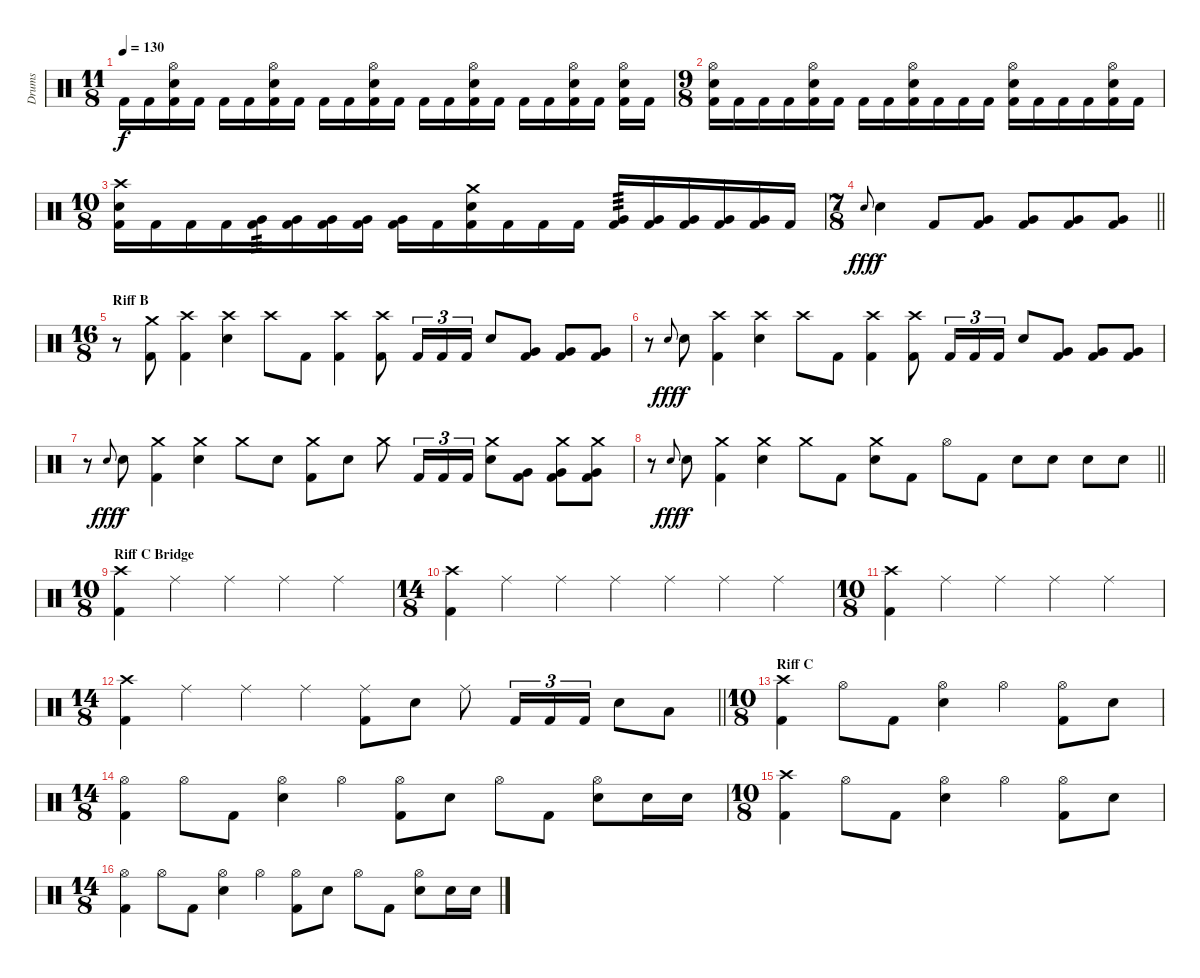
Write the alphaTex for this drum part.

\track ("Drums" "Drums") {instrument percussion}
\staff {score}
\articulation defaults
\ts (11 8)
\tempo 130
\clef neutral
\ks c "Kick (hit) 2".16{dy f} "Kick (hit) 2".16
("Kick (hit) 2" "Snare (hit) 2" "Hi-Hat (open)").16 "Kick (hit) 2".16 "Kick (hit) 2".16 "Kick (hit) 2".16 ("Kick (hit) 2" "Snare (hit) 2" "Hi-Hat (open)").16 "Kick (hit) 2".16 "Kick (hit) 2".16 "Kick (hit) 2".16 ("Kick (hit) 2" "Snare (hit) 2" "Hi-Hat (open)").16 "Kick (hit) 2".16 "Kick (hit) 2".16 "Kick (hit) 2".16 ("Kick (hit) 2" "Snare (hit) 2" "Hi-Hat (open)").16 "Kick (hit) 2".16 "Kick (hit) 2".16 "Kick (hit) 2".16 ("Kick (hit) 2" "Snare (hit) 2" "Hi-Hat (open)").16 "Kick (hit) 2".16 ("Snare (hit) 2" "Kick (hit) 2" "Hi-Hat (open)").16 "Kick (hit) 2".16 |
\ts (9 8)
("Hi-Hat (open)" "Kick (hit) 2" "Snare (hit) 2").16 "Kick (hit) 2".16 "Kick (hit) 2".16 "Kick (hit) 2".16 ("Hi-Hat (open)" "Kick (hit) 2" "Snare (hit) 2").16 "Kick (hit) 2".16 "Kick (hit) 2".16 "Kick (hit) 2".16 ("Hi-Hat (open)" "Kick (hit) 2" "Snare (hit) 2").16 "Kick (hit) 2".16 "Kick (hit) 2".16 "Kick (hit) 2".16 ("Hi-Hat (open)" "Kick (hit) 2" "Snare (hit) 2").16 "Kick (hit) 2".16 "Kick (hit) 2".16 "Kick (hit) 2".16 ("Hi-Hat (open)" "Kick (hit) 2" "Snare (hit) 2").16 "Kick (hit) 2".16 |
\ts (10 8)
("Crash high (hit)" "Kick (hit) 2" "Snare (hit) 2").16 "Kick (hit) 2".16 "Kick (hit) 2".16 "Kick (hit) 2".16 ("Kick (hit) 2" "Very Low Tom (hit)").16{tp 3} ("Very Low Tom (hit)" "Kick (hit) 2").16 ("Kick (hit) 2" "Very Low Tom (hit)").16 ("Kick (hit) 2" "Very Low Tom (hit)").16 ("Kick (hit) 2" "Very Low Tom (hit)").16 "Kick (hit) 2".16 ("Kick (hit) 2" "Crash medium (hit)" "Snare (hit) 2").16 "Kick (hit) 2".16 "Kick (hit) 2".16 "Kick (hit) 2".16 ("Kick (hit) 2" "Very Low Tom (hit)").16{tp 3} ("Kick (hit) 2" "Very Low Tom (hit)").16 ("Kick (hit) 2" "Very Low Tom (hit)").16 ("Kick (hit) 2" "Very Low Tom (hit)").16 ("Kick (hit) 2" "Very Low Tom (hit)").16 "Kick (hit) 2".16 |
\ts (7 8)
\barLineRight lightlight "Snare (hit) 2".8{gr onbeat dy fff} "Snare (hit) 2".4{dy f} "Kick (hit) 2".8
("Kick (hit) 2" "Very Low Tom (hit)").8 ("Kick (hit) 2" "Very Low Tom (hit)").8 ("Kick (hit) 2" "Very Low Tom (hit)").8 ("Kick (hit) 2" "Very Low Tom (hit)").8 |
\ts (16 8)
\section ("" "Riff B")
r.8 ("Crash medium (hit)" "Kick (hit) 2").8 ("Kick (hit) 2" "Crash high (hit)").4 ("Snare (hit) 2" "Crash high (hit)").4 "Crash high (hit)".8 "Kick (hit) 2".8 ("Kick (hit) 2" "Crash high (hit)").4 ("Crash high (hit)" "Kick (hit) 2").8 "Kick (hit) 2".16{tu (3 2)} "Kick (hit) 2".16{tu (3 2)} "Kick (hit) 2".16{tu (3 2)} "Snare (hit) 2".8 ("Kick (hit) 2" "Very Low Tom (hit)").8 ("Kick (hit) 2" "Very Low Tom (hit)").8 ("Kick (hit) 2" "Very Low Tom (hit)").8 |
r.8 "Snare (hit) 2".8{gr onbeat dy fff} "Snare (hit) 2".8{dy f} ("Kick (hit) 2" "Crash high (hit)").4 ("Snare (hit) 2" "Crash high (hit)").4 "Crash high (hit)".8 "Kick (hit) 2".8 ("Kick (hit) 2" "Crash high (hit)").4 ("Crash high (hit)" "Kick (hit) 2").8 "Kick (hit) 2".16{tu (3 2)} "Kick (hit) 2".16{tu (3 2)} "Kick (hit) 2".16{tu (3 2)} "Snare (hit) 2".8 ("Kick (hit) 2" "Very Low Tom (hit)").8 ("Kick (hit) 2" "Very Low Tom (hit)").8 ("Kick (hit) 2" "Very Low Tom (hit)").8 |
r.8 "Snare (hit) 2".8{gr onbeat dy fff} "Snare (hit) 2".8{dy f} ("Kick (hit) 2" "Crash medium (hit)").4 ("Snare (hit) 2" "Crash medium (hit)").4 "Crash medium (hit)".8 "Snare (hit) 2".8 ("Kick (hit) 2" "Crash medium (hit)").8 "Snare (hit) 2".8 "Crash medium (hit)".8 "Kick (hit) 2".16{tu (3 2)} "Kick (hit) 2".16{tu (3 2)} "Kick (hit) 2".16{tu (3 2)} ("Snare (hit) 2" "Crash medium (hit)").8 ("Kick (hit) 2" "Very Low Tom (hit)").8 ("Kick (hit) 2" "Very Low Tom (hit)" "Crash medium (hit)").8 ("Kick (hit) 2" "Very Low Tom (hit)" "Crash medium (hit)").8 |
\barLineRight lightlight
r.8 "Snare (hit) 2".8{gr onbeat dy fff} "Snare (hit) 2".8{dy f} ("Kick (hit) 2" "Crash medium (hit)").4 ("Snare (hit) 2" "Crash medium (hit)").4 "Crash medium (hit)".8 "Kick (hit) 2".8 ("Snare (hit) 2" "Crash medium (hit)").8 "Kick (hit) 2".8 "Hi-Hat (open)".8 "Kick (hit) 2".8 "Snare (hit) 2".8 "Snare (hit) 2".8 "Snare (hit) 2".8 "Snare (hit) 2".8 |
\ts (10 8)
\section ("" "Riff C Bridge")
("Kick (hit) 2" "Crash high (hit)").4 "Ride (middle)".4 "Ride (middle)".4 "Ride (middle)".4 "Ride (middle)".4 |
\ts (14 8)
("Kick (hit) 2" "Crash high (hit)").4 "Ride (middle)".4 "Ride (middle)".4 "Ride (middle)".4 "Ride (middle)".4 "Ride (middle)".4 "Ride (middle)".4 |
\ts (10 8)
("Kick (hit) 2" "Crash high (hit)").4 "Ride (middle)".4 "Ride (middle)".4 "Ride (middle)".4 "Ride (middle)".4 |
\ts (14 8)
\barLineRight lightlight
("Kick (hit) 2" "Crash high (hit)").4 "Ride (middle)".4 "Ride (middle)".4 "Ride (middle)".4 ("Kick (hit) 2" "Ride (middle)").8 "Snare (hit) 2".8 "Ride (middle)".8 "Kick (hit) 2".16{tu (3 2)} "Kick (hit) 2".16{tu (3 2)} "Kick (hit) 2".16{tu (3 2)} "Snare (hit) 2".8 "Low Tom (hit)".8 |
\ts (10 8)
\section ("" "Riff C")
("Kick (hit) 2" "Crash high (hit)").4 "Hi-Hat (open)".8 "Kick (hit) 2".8 ("Hi-Hat (open)" "Snare (hit) 2").4 "Hi-Hat (open)".4 ("Hi-Hat (open)" "Kick (hit) 2").8 "Snare (hit) 2".8 |
\ts (14 8)
("Kick (hit) 2" "Hi-Hat (open)").4 "Hi-Hat (open)".8 "Kick (hit) 2".8 ("Hi-Hat (open)" "Snare (hit) 2").4 "Hi-Hat (open)".4 ("Hi-Hat (open)" "Kick (hit) 2").8 "Snare (hit) 2".8 "Hi-Hat (open)".8 "Kick (hit) 2".8 ("Snare (hit) 2" "Hi-Hat (open)").8 "Snare (hit) 2".16 "Snare (hit) 2".16 |
\ts (10 8)
("Kick (hit) 2" "Crash high (hit)").4 "Hi-Hat (open)".8 "Kick (hit) 2".8 ("Hi-Hat (open)" "Snare (hit) 2").4 "Hi-Hat (open)".4 ("Hi-Hat (open)" "Kick (hit) 2").8 "Snare (hit) 2".8 |
\ts (14 8)
("Kick (hit) 2" "Hi-Hat (open)").4 "Hi-Hat (open)".8 "Kick (hit) 2".8 ("Hi-Hat (open)" "Snare (hit) 2").4 "Hi-Hat (open)".4 ("Hi-Hat (open)" "Kick (hit) 2").8 "Snare (hit) 2".8 "Hi-Hat (open)".8 "Kick (hit) 2".8 ("Snare (hit) 2" "Hi-Hat (open)").8 "Snare (hit) 2".16 "Snare (hit) 2".16
